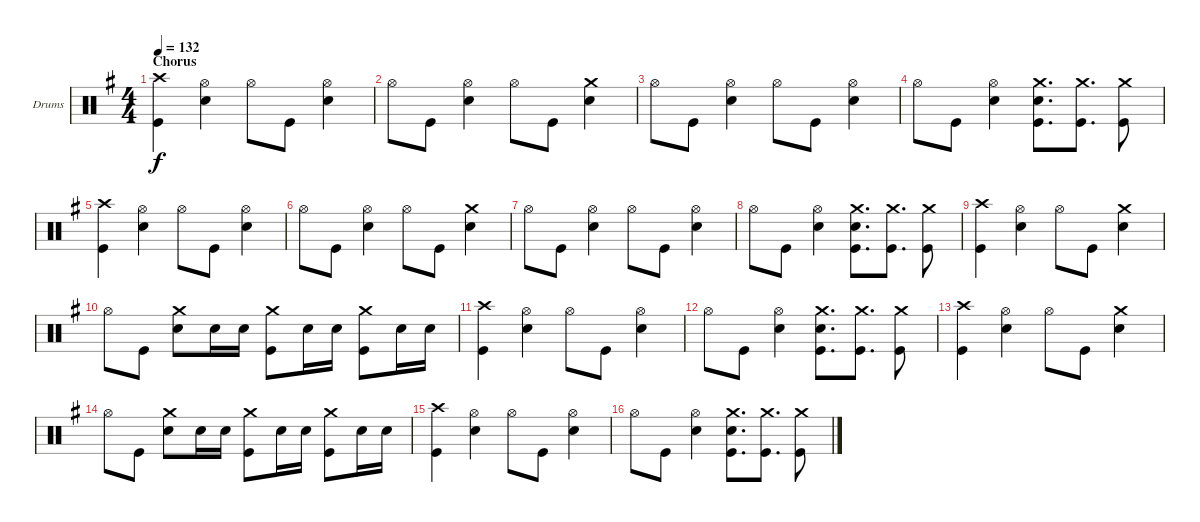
\bracketExtendMode groupsimilarinstruments
\firstSystemTrackNameOrientation horizontal
\otherSystemsTrackNameOrientation horizontal
\track ("Drumkit" "Drums") {instrument percussion}
\staff {score}
\articulation defaults
\ts (4 4)
\section ("" "Chorus")
\tempo 132
\clef neutral
\ks g
("Crash high (hit)" "Kick (hit)").4{dy f} ("Hi-Hat (open)" "Snare (hit) 2").4 "Hi-Hat (open)".8 "Kick (hit)".8 ("Hi-Hat (open)" "Snare (hit) 2").4 |
"Hi-Hat (open)".8 "Kick (hit)".8 ("Hi-Hat (open)" "Snare (hit) 2").4 "Hi-Hat (open)".8 "Kick (hit)".8 ("Crash medium (hit)" "Snare (hit) 2").4 |
"Hi-Hat (open)".8 "Kick (hit)".8 ("Hi-Hat (open)" "Snare (hit) 2").4 "Hi-Hat (open)".8 "Kick (hit)".8 ("Hi-Hat (open)" "Snare (hit) 2").4 |
"Hi-Hat (open)".8 "Kick (hit)".8 ("Hi-Hat (open)" "Snare (hit) 2").4 ("Crash medium (hit)" "Snare (hit) 2" "Kick (hit)").8{d} ("Crash medium (hit)" "Kick (hit)").8{d} ("Crash medium (hit)" "Kick (hit)").8 |
("Crash high (hit)" "Kick (hit)").4 ("Hi-Hat (open)" "Snare (hit) 2").4 "Hi-Hat (open)".8 "Kick (hit)".8 ("Hi-Hat (open)" "Snare (hit) 2").4 |
"Hi-Hat (open)".8 "Kick (hit)".8 ("Hi-Hat (open)" "Snare (hit) 2").4 "Hi-Hat (open)".8 "Kick (hit)".8 ("Crash medium (hit)" "Snare (hit) 2").4 |
"Hi-Hat (open)".8 "Kick (hit)".8 ("Hi-Hat (open)" "Snare (hit) 2").4 "Hi-Hat (open)".8 "Kick (hit)".8 ("Hi-Hat (open)" "Snare (hit) 2").4 |
"Hi-Hat (open)".8 "Kick (hit)".8 ("Hi-Hat (open)" "Snare (hit) 2").4 ("Crash medium (hit)" "Snare (hit) 2" "Kick (hit)").8{d} ("Crash medium (hit)" "Kick (hit)").8{d} ("Crash medium (hit)" "Kick (hit)").8 |
("Crash high (hit)" "Kick (hit)").4 ("Hi-Hat (open)" "Snare (hit) 2").4 "Hi-Hat (open)".8 "Kick (hit)".8 ("Crash medium (hit)" "Snare (hit) 2").4 |
"Hi-Hat (open)".8 "Kick (hit)".8 ("Crash medium (hit)" "Snare (hit) 2").8 "Snare (hit) 2".16 "Snare (hit) 2".16 ("Crash medium (hit)" "Kick (hit)").8 "Snare (hit) 2".16 "Snare (hit) 2".16 ("Crash medium (hit)" "Kick (hit)").8 "Snare (hit) 2".16 "Snare (hit) 2".16 |
("Crash high (hit)" "Kick (hit)").4 ("Hi-Hat (open)" "Snare (hit) 2").4 "Hi-Hat (open)".8 "Kick (hit)".8 ("Hi-Hat (open)" "Snare (hit) 2").4 |
"Hi-Hat (open)".8 "Kick (hit)".8 ("Hi-Hat (open)" "Snare (hit) 2").4 ("Crash medium (hit)" "Snare (hit) 2" "Kick (hit)").8{d} ("Crash medium (hit)" "Kick (hit)").8{d} ("Crash medium (hit)" "Kick (hit)").8 |
("Crash high (hit)" "Kick (hit)").4 ("Hi-Hat (open)" "Snare (hit) 2").4 "Hi-Hat (open)".8 "Kick (hit)".8 ("Crash medium (hit)" "Snare (hit) 2").4 |
"Hi-Hat (open)".8 "Kick (hit)".8 ("Crash medium (hit)" "Snare (hit) 2").8 "Snare (hit) 2".16 "Snare (hit) 2".16 ("Crash medium (hit)" "Kick (hit)").8 "Snare (hit) 2".16 "Snare (hit) 2".16 ("Crash medium (hit)" "Kick (hit)").8 "Snare (hit) 2".16 "Snare (hit) 2".16 |
("Crash high (hit)" "Kick (hit)").4 ("Hi-Hat (open)" "Snare (hit) 2").4 "Hi-Hat (open)".8 "Kick (hit)".8 ("Hi-Hat (open)" "Snare (hit) 2").4 |
"Hi-Hat (open)".8 "Kick (hit)".8 ("Hi-Hat (open)" "Snare (hit) 2").4 ("Crash medium (hit)" "Snare (hit) 2" "Kick (hit)").8{d} ("Crash medium (hit)" "Kick (hit)").8{d} ("Crash medium (hit)" "Kick (hit)").8
